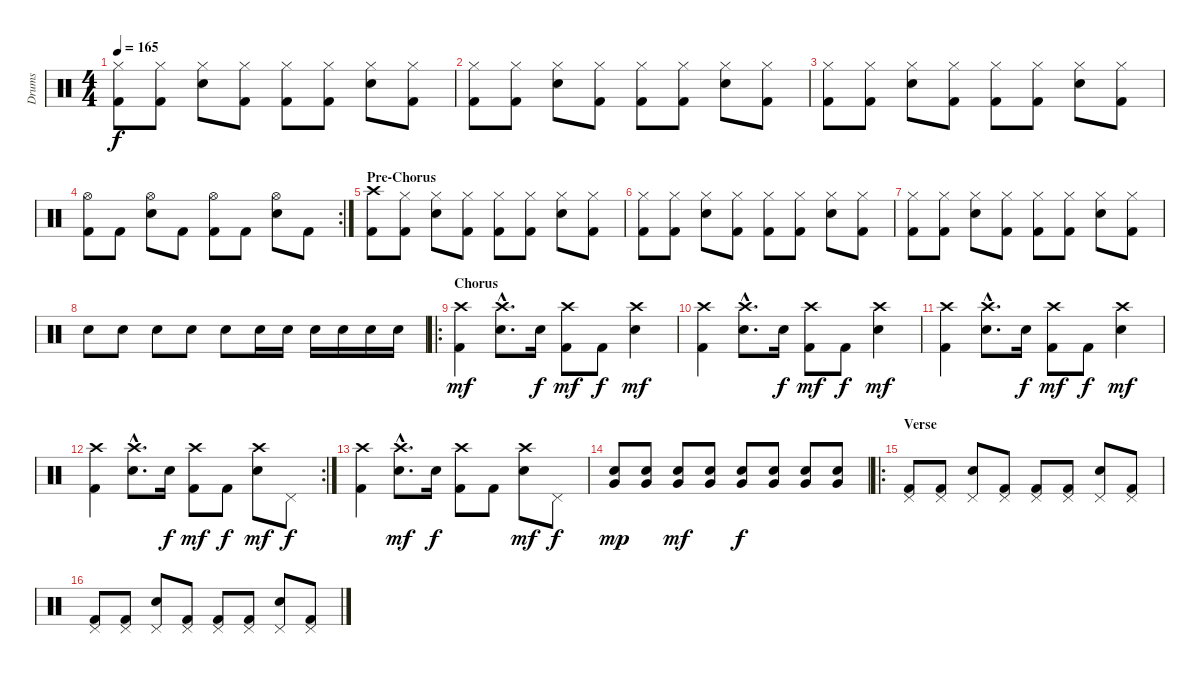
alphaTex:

\track ("Drums" "Drums") {instrument percussion}
\staff {score}
\articulation defaults
\ts (4 4)
\tempo 165
\clef neutral
\ks c
("Hi-Hat (closed)" "Kick (hit) 2").8{dy f} ("Hi-Hat (closed)" "Kick (hit) 2").8 ("Hi-Hat (closed)" "Electric Snare (hit)").8 ("Hi-Hat (closed)" "Kick (hit) 2").8 ("Hi-Hat (closed)" "Kick (hit) 2").8 ("Hi-Hat (closed)" "Kick (hit) 2").8 ("Hi-Hat (closed)" "Electric Snare (hit)").8 ("Hi-Hat (closed)" "Kick (hit) 2").8 |
("Hi-Hat (closed)" "Kick (hit) 2").8 ("Hi-Hat (closed)" "Kick (hit) 2").8 ("Hi-Hat (closed)" "Electric Snare (hit)").8 ("Hi-Hat (closed)" "Kick (hit) 2").8 ("Hi-Hat (closed)" "Kick (hit) 2").8 ("Hi-Hat (closed)" "Kick (hit) 2").8 ("Hi-Hat (closed)" "Electric Snare (hit)").8 ("Hi-Hat (closed)" "Kick (hit) 2").8 |
("Hi-Hat (closed)" "Kick (hit) 2").8 ("Hi-Hat (closed)" "Kick (hit) 2").8 ("Hi-Hat (closed)" "Electric Snare (hit)").8 ("Hi-Hat (closed)" "Kick (hit) 2").8 ("Hi-Hat (closed)" "Kick (hit) 2").8 ("Hi-Hat (closed)" "Kick (hit) 2").8 ("Hi-Hat (closed)" "Electric Snare (hit)").8 ("Hi-Hat (closed)" "Kick (hit) 2").8 |
\rc 2
("Hi-Hat (open)" "Kick (hit) 2").8 "Kick (hit) 2".8 ("Hi-Hat (open)" "Electric Snare (hit)").8 "Kick (hit) 2".8 ("Hi-Hat (open)" "Kick (hit) 2").8 "Kick (hit) 2".8 ("Hi-Hat (open)" "Electric Snare (hit)").8 "Kick (hit) 2".8 |
\section ("" "Pre-Chorus")
("Crash high (hit)" "Kick (hit) 2").8 ("Hi-Hat (closed)" "Kick (hit) 2").8 ("Hi-Hat (closed)" "Electric Snare (hit)").8 ("Hi-Hat (closed)" "Kick (hit) 2").8 ("Hi-Hat (closed)" "Kick (hit) 2").8 ("Hi-Hat (closed)" "Kick (hit) 2").8 ("Hi-Hat (closed)" "Electric Snare (hit)").8 ("Hi-Hat (closed)" "Kick (hit) 2").8 |
("Hi-Hat (closed)" "Kick (hit) 2").8 ("Hi-Hat (closed)" "Kick (hit) 2").8 ("Hi-Hat (closed)" "Electric Snare (hit)").8 ("Hi-Hat (closed)" "Kick (hit) 2").8 ("Hi-Hat (closed)" "Kick (hit) 2").8 ("Hi-Hat (closed)" "Kick (hit) 2").8 ("Hi-Hat (closed)" "Electric Snare (hit)").8 ("Hi-Hat (closed)" "Kick (hit) 2").8 |
("Hi-Hat (closed)" "Kick (hit) 2").8 ("Hi-Hat (closed)" "Kick (hit) 2").8 ("Hi-Hat (closed)" "Electric Snare (hit)").8 ("Hi-Hat (closed)" "Kick (hit) 2").8 ("Hi-Hat (closed)" "Kick (hit) 2").8 ("Hi-Hat (closed)" "Kick (hit) 2").8 ("Hi-Hat (closed)" "Electric Snare (hit)").8 ("Hi-Hat (closed)" "Kick (hit) 2").8 |
"Electric Snare (hit)".8 "Electric Snare (hit)".8 "Electric Snare (hit)".8 "Electric Snare (hit)".8 "Electric Snare (hit)".8 "Electric Snare (hit)".16 "Electric Snare (hit)".16 "Electric Snare (hit)".16 "Electric Snare (hit)".16 "Electric Snare (hit)".16 "Electric Snare (hit)".16 |
\ro
\section ("" "Chorus")
("Crash high (hit)" "Kick (hit) 2").4{dy mf} ("Crash high (hit)"{hac} "Electric Snare (hit)"{hac}).8{d} "Electric Snare (hit)".16{dy f} ("Crash high (hit)" "Kick (hit) 2").8{dy mf} "Kick (hit) 2".8{dy f} ("Crash high (hit)" "Electric Snare (hit)").4{dy mf} |
("Crash high (hit)" "Kick (hit) 2").4 ("Crash high (hit)"{hac} "Electric Snare (hit)"{hac}).8{d} "Electric Snare (hit)".16{dy f} ("Crash high (hit)" "Kick (hit) 2").8{dy mf} "Kick (hit) 2".8{dy f} ("Crash high (hit)" "Electric Snare (hit)").4{dy mf} |
("Crash high (hit)" "Kick (hit) 2").4 ("Crash high (hit)"{hac} "Electric Snare (hit)"{hac}).8{d} "Electric Snare (hit)".16{dy f} ("Crash high (hit)" "Kick (hit) 2").8{dy mf} "Kick (hit) 2".8{dy f} ("Crash high (hit)" "Electric Snare (hit)").4{dy mf} |
\rc 2
("Crash high (hit)" "Kick (hit) 2").4 ("Crash high (hit)"{hac} "Electric Snare (hit)"{hac}).8{d} "Electric Snare (hit)".16{dy f} ("Crash high (hit)" "Kick (hit) 2").8{dy mf} "Kick (hit) 2".8{dy f} ("Crash high (hit)" "Electric Snare (hit)").8{dy mf} "Pedal Hi-Hat (hit)".8{dy f} |
("Crash high (hit)" "Kick (hit) 2").4 ("Crash high (hit)"{hac} "Electric Snare (hit)"{hac}).8{d dy mf} "Electric Snare (hit)".16{dy f} ("Crash high (hit)" "Kick (hit) 2").8 "Kick (hit) 2".8 ("Crash high (hit)" "Electric Snare (hit)").8{dy mf} "Pedal Hi-Hat (hit)".8{dy f} |
("Electric Snare (hit)" "Very Low Tom (hit)").8{dy mp} ("Electric Snare (hit)" "Very Low Tom (hit)").8 ("Electric Snare (hit)" "Very Low Tom (hit)").8{dy mf} ("Electric Snare (hit)" "Very Low Tom (hit)").8 ("Electric Snare (hit)" "Very Low Tom (hit)").8{dy f} ("Electric Snare (hit)" "Very Low Tom (hit)").8 ("Electric Snare (hit)" "Very Low Tom (hit)").8 ("Electric Snare (hit)" "Very Low Tom (hit)").8 |
\ro
\section ("" "Verse")
("Pedal Hi-Hat (hit)" "Kick (hit) 2").8 ("Pedal Hi-Hat (hit)" "Kick (hit) 2").8 ("Pedal Hi-Hat (hit)" "Electric Snare (hit)").8 ("Pedal Hi-Hat (hit)" "Kick (hit) 2").8 ("Pedal Hi-Hat (hit)" "Kick (hit) 2").8 ("Pedal Hi-Hat (hit)" "Kick (hit) 2").8 ("Pedal Hi-Hat (hit)" "Electric Snare (hit)").8 ("Pedal Hi-Hat (hit)" "Kick (hit) 2").8 |
("Pedal Hi-Hat (hit)" "Kick (hit) 2").8 ("Pedal Hi-Hat (hit)" "Kick (hit) 2").8 ("Pedal Hi-Hat (hit)" "Electric Snare (hit)").8 ("Pedal Hi-Hat (hit)" "Kick (hit) 2").8 ("Pedal Hi-Hat (hit)" "Kick (hit) 2").8 ("Pedal Hi-Hat (hit)" "Kick (hit) 2").8 ("Pedal Hi-Hat (hit)" "Electric Snare (hit)").8 ("Pedal Hi-Hat (hit)" "Kick (hit) 2").8
